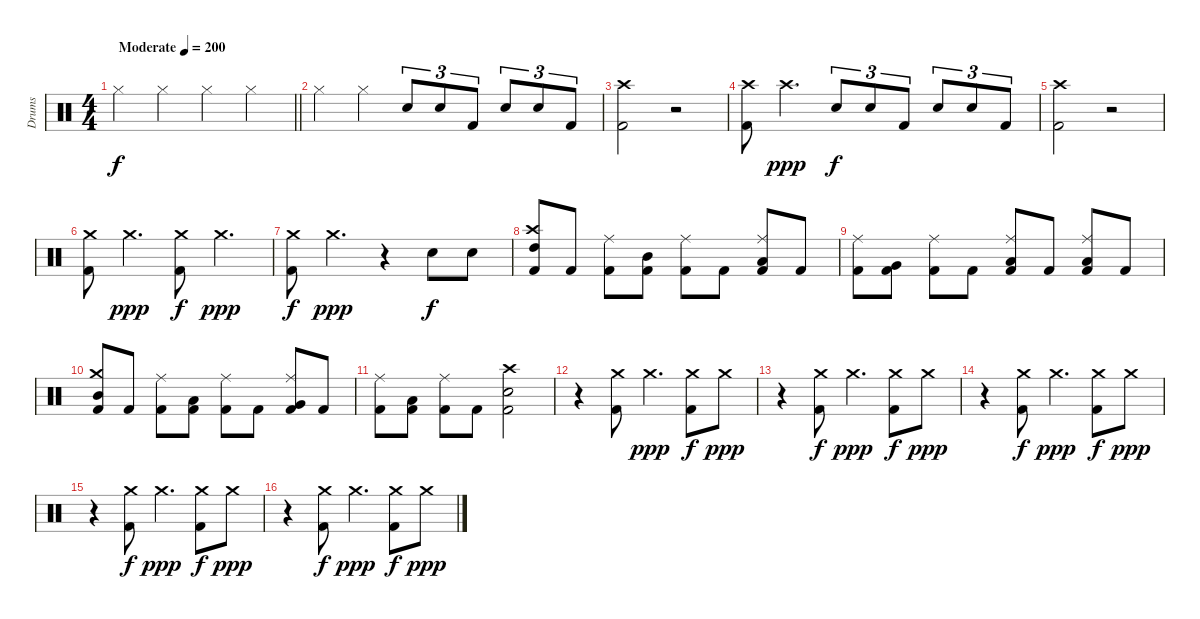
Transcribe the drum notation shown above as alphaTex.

\track ("Drums" "Drums") {instrument percussion}
\staff {score}
\articulation defaults
\ts (4 4)
\tempo (200 "Moderate")
\clef neutral
\barLineRight lightlight
\ks c "Hi-Hat (closed)".4{dy f} "Hi-Hat (closed)".4 "Hi-Hat (closed)".4 "Hi-Hat (closed)".4
|
\section ("" "")
"Hi-Hat (closed)".4 "Hi-Hat (closed)".4 "Snare (hit) 2".8{tu (3 2)} "Snare (hit) 2".8{tu (3 2)} "Kick (hit) 2".8{tu (3 2)} "Snare (hit) 2".8{tu (3 2)} "Snare (hit) 2".8{tu (3 2)} "Kick (hit) 2".8{tu (3 2)} |
("Crash high (hit)" "Kick (hit) 2").2 r.2 |
("Crash high (hit)" "Kick (hit) 2").8 "Crash high (hit)".4{d dy ppp} "Snare (hit) 2".8{tu (3 2) dy f} "Snare (hit) 2".8{tu (3 2)} "Kick (hit) 2".8{tu (3 2)} "Snare (hit) 2".8{tu (3 2)} "Snare (hit) 2".8{tu (3 2)} "Kick (hit) 2".8{tu (3 2)} |
("Crash high (hit)" "Kick (hit) 2").2 r.2 |
("Crash medium (hit)" "Kick (hit) 2").8 "Crash medium (hit)".4{d dy ppp} ("Crash medium (hit)" "Kick (hit) 2").8{dy f} "Crash medium (hit)".4{d dy ppp} |
("Crash medium (hit)" "Kick (hit) 2").8{dy f} "Crash medium (hit)".4{d dy ppp} r.4 "Snare (hit) 2".8{dy f} "Snare (hit) 2".8 |
("Crash high (hit)" "High Tom (hit)" "Kick (hit) 2").8 "Kick (hit) 2".8 ("Ride (middle)" "Kick (hit) 2").8 ("Mid Tom (hit)" "Kick (hit) 2").8 ("Ride (middle)" "Kick (hit) 2").8 "Kick (hit) 2".8 ("Ride (middle)" "Low Tom (hit)" "Kick (hit) 2").8 "Kick (hit) 2".8 |
("Ride (middle)" "Kick (hit) 2").8 ("Very Low Tom (hit)" "Kick (hit) 2").8 ("Ride (middle)" "Kick (hit) 2").8 "Kick (hit) 2".8 ("Ride (middle)" "Low Floor Tom (hit)" "Kick (hit) 2").8 "Kick (hit) 2".8 ("Ride (middle)" "Low Floor Tom (hit)" "Kick (hit) 2").8 "Kick (hit) 2".8 |
("Crash medium (hit)" "Mid Tom (hit)" "Kick (hit) 2").8 "Kick (hit) 2".8 ("Ride (middle)" "Kick (hit) 2").8 ("Low Tom (hit)" "Kick (hit) 2").8 ("Ride (middle)" "Kick (hit) 2").8 "Kick (hit) 2".8 ("Ride (middle)" "Very Low Tom (hit)" "Kick (hit) 2").8 "Kick (hit) 2".8 |
("Ride (middle)" "Kick (hit) 2").8 ("Low Floor Tom (hit)" "Kick (hit) 2").8 ("Ride (middle)" "Kick (hit) 2").8 "Kick (hit) 2".8 ("Crash high (hit)" "Snare (hit) 2" "Kick (hit) 2").2 |
r.4 ("Crash medium (hit)" "Kick (hit) 2").8 "Crash medium (hit)".4{d dy ppp} ("Crash medium (hit)" "Kick (hit) 2").8{dy f} "Crash medium (hit)".8{dy ppp} |
r.4 ("Crash medium (hit)" "Kick (hit) 2").8{dy f} "Crash medium (hit)".4{d dy ppp} ("Crash medium (hit)" "Kick (hit) 2").8{dy f} "Crash medium (hit)".8{dy ppp} |
r.4 ("Crash medium (hit)" "Kick (hit) 2").8{dy f} "Crash medium (hit)".4{d dy ppp} ("Crash medium (hit)" "Kick (hit) 2").8{dy f} "Crash medium (hit)".8{dy ppp} |
r.4 ("Crash medium (hit)" "Kick (hit) 2").8{dy f} "Crash medium (hit)".4{d dy ppp} ("Crash medium (hit)" "Kick (hit) 2").8{dy f} "Crash medium (hit)".8{dy ppp} |
r.4 ("Crash medium (hit)" "Kick (hit) 2").8{dy f} "Crash medium (hit)".4{d dy ppp} ("Crash medium (hit)" "Kick (hit) 2").8{dy f} "Crash medium (hit)".8{dy ppp}
